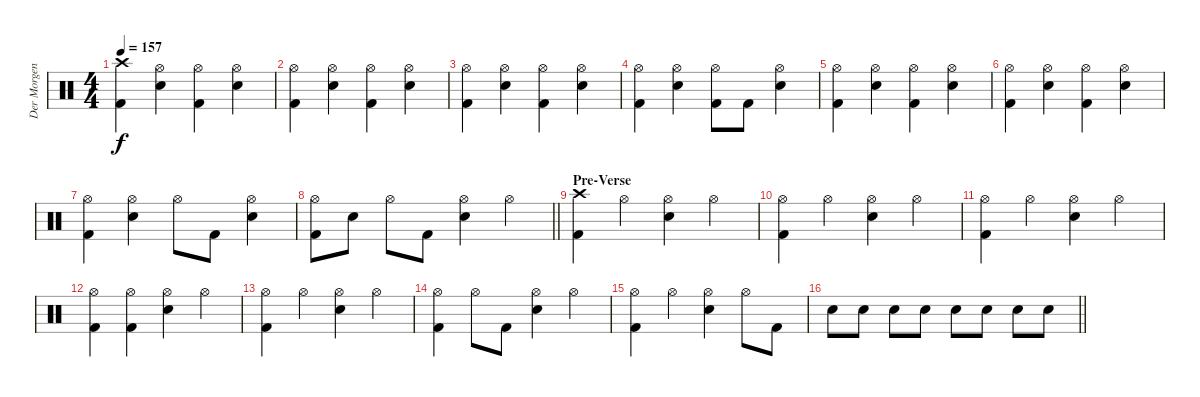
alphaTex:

\track ("Der Morgenstern" "Der Morgen") {instrument percussion}
\staff {score}
\articulation defaults
\ts (4 4)
\tempo 157
\clef neutral
\ks c
("Crash high (hit)" "Kick (hit) 2").4{dy f} ("Hi-Hat (open)" "Electric Snare (hit)").4 ("Hi-Hat (open)" "Kick (hit) 2").4 ("Hi-Hat (open)" "Electric Snare (hit)").4 |
("Hi-Hat (open)" "Kick (hit) 2").4 ("Hi-Hat (open)" "Electric Snare (hit)").4 ("Hi-Hat (open)" "Kick (hit) 2").4 ("Hi-Hat (open)" "Electric Snare (hit)").4 |
("Hi-Hat (open)" "Kick (hit) 2").4 ("Hi-Hat (open)" "Electric Snare (hit)").4 ("Hi-Hat (open)" "Kick (hit) 2").4 ("Hi-Hat (open)" "Electric Snare (hit)").4 |
("Hi-Hat (open)" "Kick (hit) 2").4 ("Hi-Hat (open)" "Electric Snare (hit)").4 ("Hi-Hat (open)" "Kick (hit) 2").8 "Kick (hit) 2".8 ("Hi-Hat (open)" "Electric Snare (hit)").4 |
("Hi-Hat (open)" "Kick (hit) 2").4 ("Hi-Hat (open)" "Electric Snare (hit)").4 ("Hi-Hat (open)" "Kick (hit) 2").4 ("Hi-Hat (open)" "Electric Snare (hit)").4 |
("Hi-Hat (open)" "Kick (hit) 2").4 ("Hi-Hat (open)" "Electric Snare (hit)").4 ("Hi-Hat (open)" "Kick (hit) 2").4 ("Hi-Hat (open)" "Electric Snare (hit)").4 |
("Hi-Hat (open)" "Kick (hit) 2").4 ("Hi-Hat (open)" "Electric Snare (hit)").4 "Hi-Hat (open)".8 "Kick (hit) 2".8 ("Hi-Hat (open)" "Electric Snare (hit)").4 |
\barLineRight lightlight
("Hi-Hat (open)" "Kick (hit) 2").8 "Electric Snare (hit)".8 "Hi-Hat (open)".8 "Kick (hit) 2".8 ("Hi-Hat (open)" "Electric Snare (hit)").4 "Hi-Hat (open)".4 |
\section ("" "Pre-Verse")
("Crash high (hit)" "Kick (hit) 2").4 "Hi-Hat (open)".4 ("Hi-Hat (open)" "Electric Snare (hit)").4 "Hi-Hat (open)".4 |
("Hi-Hat (open)" "Kick (hit) 2").4 "Hi-Hat (open)".4 ("Hi-Hat (open)" "Electric Snare (hit)").4 "Hi-Hat (open)".4 |
("Hi-Hat (open)" "Kick (hit) 2").4 "Hi-Hat (open)".4 ("Hi-Hat (open)" "Electric Snare (hit)").4 "Hi-Hat (open)".4 |
("Hi-Hat (open)" "Kick (hit) 2").4 ("Hi-Hat (open)" "Kick (hit) 2").4 ("Hi-Hat (open)" "Electric Snare (hit)").4 "Hi-Hat (open)".4 |
("Hi-Hat (open)" "Kick (hit) 2").4 "Hi-Hat (open)".4 ("Hi-Hat (open)" "Electric Snare (hit)").4 "Hi-Hat (open)".4 |
("Hi-Hat (open)" "Kick (hit) 2").4 "Hi-Hat (open)".8 "Kick (hit) 2".8 ("Hi-Hat (open)" "Electric Snare (hit)").4 "Hi-Hat (open)".4 |
("Hi-Hat (open)" "Kick (hit) 2").4 "Hi-Hat (open)".4 ("Hi-Hat (open)" "Electric Snare (hit)").4 "Hi-Hat (open)".8 "Kick (hit) 2".8 |
\barLineRight lightlight "Electric Snare (hit)".8 "Electric Snare (hit)".8 "Electric Snare (hit)".8 "Electric Snare (hit)".8 "Electric Snare (hit)".8 "Electric Snare (hit)".8 "Electric Snare (hit)".8 "Electric Snare (hit)".8
